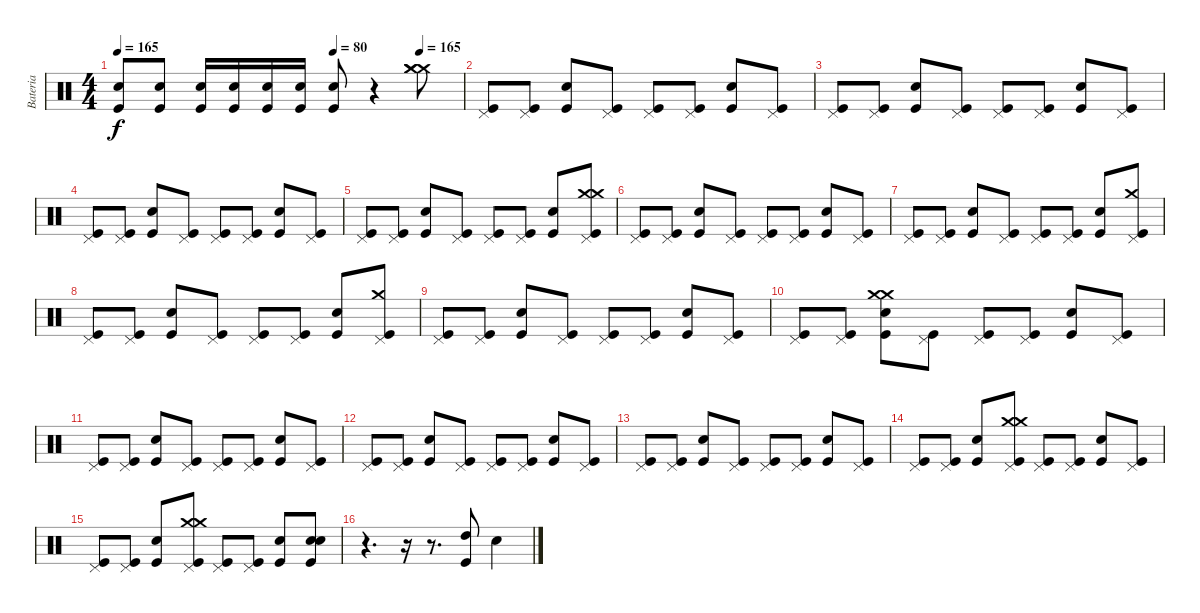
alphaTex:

\track ("Bateria" "Bateria") {instrument percussion}
\staff {score}
\articulation defaults
\ts (4 4)
\tempo 165
\tempo (80 0.625)
\tempo (165 0.875)
\clef neutral
\ks c
("Kick (hit)" "Electric Snare (hit)").8{dy f} ("Kick (hit)" "Electric Snare (hit)").8 ("Kick (hit)" "Electric Snare (hit)").16 ("Kick (hit)" "Electric Snare (hit)").16 ("Kick (hit)" "Electric Snare (hit)").16 ("Kick (hit)" "Electric Snare (hit)").16 ("Kick (hit)" "Electric Snare (hit)").8 r.4 ("Crash medium (hit)" "Crash medium (hit)" "Crash medium (hit)").8 |
("Kick (hit)" "Pedal Hi-Hat (hit)").8 ("Kick (hit)" "Pedal Hi-Hat (hit)").8 ("Kick (hit)" "Electric Snare (hit)").8 ("Kick (hit)" "Pedal Hi-Hat (hit)").8 ("Kick (hit)" "Pedal Hi-Hat (hit)").8 ("Kick (hit)" "Pedal Hi-Hat (hit)").8 ("Kick (hit)" "Electric Snare (hit)").8 ("Kick (hit)" "Pedal Hi-Hat (hit)").8 |
("Kick (hit)" "Pedal Hi-Hat (hit)").8 ("Kick (hit)" "Pedal Hi-Hat (hit)").8 ("Kick (hit)" "Electric Snare (hit)").8 ("Kick (hit)" "Pedal Hi-Hat (hit)").8 ("Kick (hit)" "Pedal Hi-Hat (hit)").8 ("Kick (hit)" "Pedal Hi-Hat (hit)").8 ("Kick (hit)" "Electric Snare (hit)").8 ("Kick (hit)" "Pedal Hi-Hat (hit)").8 |
("Kick (hit)" "Pedal Hi-Hat (hit)").8 ("Kick (hit)" "Pedal Hi-Hat (hit)").8 ("Kick (hit)" "Electric Snare (hit)").8 ("Kick (hit)" "Pedal Hi-Hat (hit)").8 ("Kick (hit)" "Pedal Hi-Hat (hit)").8 ("Kick (hit)" "Pedal Hi-Hat (hit)").8 ("Kick (hit)" "Electric Snare (hit)").8 ("Kick (hit)" "Pedal Hi-Hat (hit)").8 |
("Kick (hit)" "Pedal Hi-Hat (hit)").8 ("Kick (hit)" "Pedal Hi-Hat (hit)").8 ("Kick (hit)" "Electric Snare (hit)").8 ("Kick (hit)" "Pedal Hi-Hat (hit)").8 ("Kick (hit)" "Pedal Hi-Hat (hit)").8 ("Kick (hit)" "Pedal Hi-Hat (hit)").8 ("Kick (hit)" "Electric Snare (hit)").8 ("Kick (hit)" "Pedal Hi-Hat (hit)" "Crash medium (hit)" "Crash medium (hit)").8 |
("Kick (hit)" "Pedal Hi-Hat (hit)").8 ("Kick (hit)" "Pedal Hi-Hat (hit)").8 ("Kick (hit)" "Electric Snare (hit)").8 ("Kick (hit)" "Pedal Hi-Hat (hit)").8 ("Kick (hit)" "Pedal Hi-Hat (hit)").8 ("Kick (hit)" "Pedal Hi-Hat (hit)").8 ("Kick (hit)" "Electric Snare (hit)").8 ("Kick (hit)" "Pedal Hi-Hat (hit)").8 |
("Kick (hit)" "Pedal Hi-Hat (hit)").8 ("Kick (hit)" "Pedal Hi-Hat (hit)").8 ("Kick (hit)" "Electric Snare (hit)").8 ("Kick (hit)" "Pedal Hi-Hat (hit)").8 ("Kick (hit)" "Pedal Hi-Hat (hit)").8 ("Kick (hit)" "Pedal Hi-Hat (hit)").8 ("Kick (hit)" "Electric Snare (hit)").8 ("Kick (hit)" "Pedal Hi-Hat (hit)" "Crash medium (hit)").8 |
("Kick (hit)" "Pedal Hi-Hat (hit)").8 ("Kick (hit)" "Pedal Hi-Hat (hit)").8 ("Kick (hit)" "Electric Snare (hit)").8 ("Kick (hit)" "Pedal Hi-Hat (hit)").8 ("Kick (hit)" "Pedal Hi-Hat (hit)").8 ("Kick (hit)" "Pedal Hi-Hat (hit)").8 ("Kick (hit)" "Electric Snare (hit)").8 ("Kick (hit)" "Pedal Hi-Hat (hit)" "Crash medium (hit)").8 |
("Kick (hit)" "Pedal Hi-Hat (hit)").8 ("Kick (hit)" "Pedal Hi-Hat (hit)").8 ("Kick (hit)" "Electric Snare (hit)").8 ("Kick (hit)" "Pedal Hi-Hat (hit)").8 ("Kick (hit)" "Pedal Hi-Hat (hit)").8 ("Kick (hit)" "Pedal Hi-Hat (hit)").8 ("Kick (hit)" "Electric Snare (hit)").8 ("Kick (hit)" "Pedal Hi-Hat (hit)").8 |
("Kick (hit)" "Pedal Hi-Hat (hit)").8 ("Kick (hit)" "Pedal Hi-Hat (hit)").8 ("Kick (hit)" "Electric Snare (hit)" "Crash medium (hit)" "Crash medium (hit)").8 ("Kick (hit)" "Pedal Hi-Hat (hit)").8 ("Kick (hit)" "Pedal Hi-Hat (hit)").8 ("Kick (hit)" "Pedal Hi-Hat (hit)").8 ("Kick (hit)" "Electric Snare (hit)").8 ("Kick (hit)" "Pedal Hi-Hat (hit)").8 |
("Kick (hit)" "Pedal Hi-Hat (hit)").8 ("Kick (hit)" "Pedal Hi-Hat (hit)").8 ("Kick (hit)" "Electric Snare (hit)").8 ("Kick (hit)" "Pedal Hi-Hat (hit)").8 ("Kick (hit)" "Pedal Hi-Hat (hit)").8 ("Kick (hit)" "Pedal Hi-Hat (hit)").8 ("Kick (hit)" "Electric Snare (hit)").8 ("Kick (hit)" "Pedal Hi-Hat (hit)").8 |
("Kick (hit)" "Pedal Hi-Hat (hit)").8 ("Kick (hit)" "Pedal Hi-Hat (hit)").8 ("Kick (hit)" "Electric Snare (hit)").8 ("Kick (hit)" "Pedal Hi-Hat (hit)").8 ("Kick (hit)" "Pedal Hi-Hat (hit)").8 ("Kick (hit)" "Pedal Hi-Hat (hit)").8 ("Kick (hit)" "Electric Snare (hit)").8 ("Kick (hit)" "Pedal Hi-Hat (hit)").8 |
("Kick (hit)" "Pedal Hi-Hat (hit)").8 ("Kick (hit)" "Pedal Hi-Hat (hit)").8 ("Kick (hit)" "Electric Snare (hit)").8 ("Kick (hit)" "Pedal Hi-Hat (hit)").8 ("Kick (hit)" "Pedal Hi-Hat (hit)").8 ("Kick (hit)" "Pedal Hi-Hat (hit)").8 ("Kick (hit)" "Electric Snare (hit)").8 ("Kick (hit)" "Pedal Hi-Hat (hit)").8 |
("Kick (hit)" "Pedal Hi-Hat (hit)").8 ("Kick (hit)" "Pedal Hi-Hat (hit)").8 ("Kick (hit)" "Electric Snare (hit)").8 ("Kick (hit)" "Pedal Hi-Hat (hit)" "Crash medium (hit)" "Crash medium (hit)").8 ("Kick (hit)" "Pedal Hi-Hat (hit)").8 ("Kick (hit)" "Pedal Hi-Hat (hit)").8 ("Kick (hit)" "Electric Snare (hit)").8 ("Kick (hit)" "Pedal Hi-Hat (hit)").8 |
("Kick (hit)" "Pedal Hi-Hat (hit)").8 ("Kick (hit)" "Pedal Hi-Hat (hit)").8 ("Kick (hit)" "Electric Snare (hit)").8 ("Kick (hit)" "Pedal Hi-Hat (hit)" "Crash medium (hit)" "Crash medium (hit)").8 ("Kick (hit)" "Pedal Hi-Hat (hit)").8 ("Kick (hit)" "Pedal Hi-Hat (hit)").8 ("Kick (hit)" "Electric Snare (hit)").8 ("Kick (hit)" "Snare (hit) 2" "Electric Snare (hit)").8 |
r.4{d} r.16 r.8{d} ("High Tom (hit)" "Kick (hit)").8 "Metronome (bell)".4
